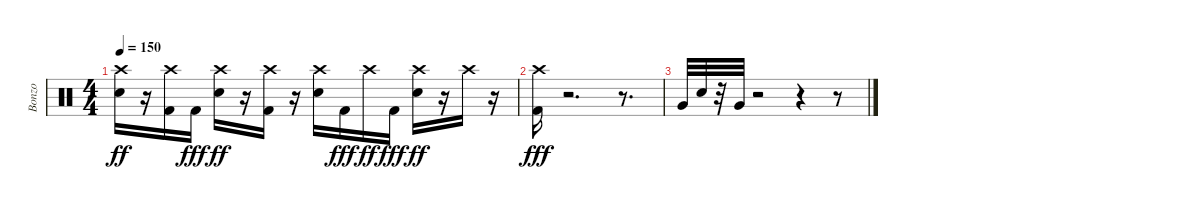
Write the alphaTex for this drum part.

\track ("Bonzo" "Bonzo") {instrument percussion}
\staff {score}
\articulation defaults
\ts (4 4)
\tempo 150
\clef neutral
\ks c
("Snare (hit) 2" "Crash high (hit)").16{dy ff} r.16 ("Kick (hit) 2" "Crash high (hit)").16 "Kick (hit) 2".16{dy fff} ("Snare (hit) 2" "Crash high (hit)").16{dy ff} r.16 ("Kick (hit) 2" "Crash high (hit)").16 r.16 ("Snare (hit) 2" "Crash high (hit)").16 "Kick (hit) 2".16{dy fff} "Crash high (hit)".16{dy ff} "Kick (hit) 2".16{dy fff} ("Snare (hit) 2" "Crash high (hit)").16{dy ff} r.16 "Crash high (hit)".16 r.16 |
("Kick (hit) 2" "Crash high (hit)").16{dy fff} r.2{d} r.8{d} |
"Very Low Tom (hit)".32 "Snare (hit) 2".32 r.32 "Very Low Tom (hit)".32 r.2 r.4 r.8
